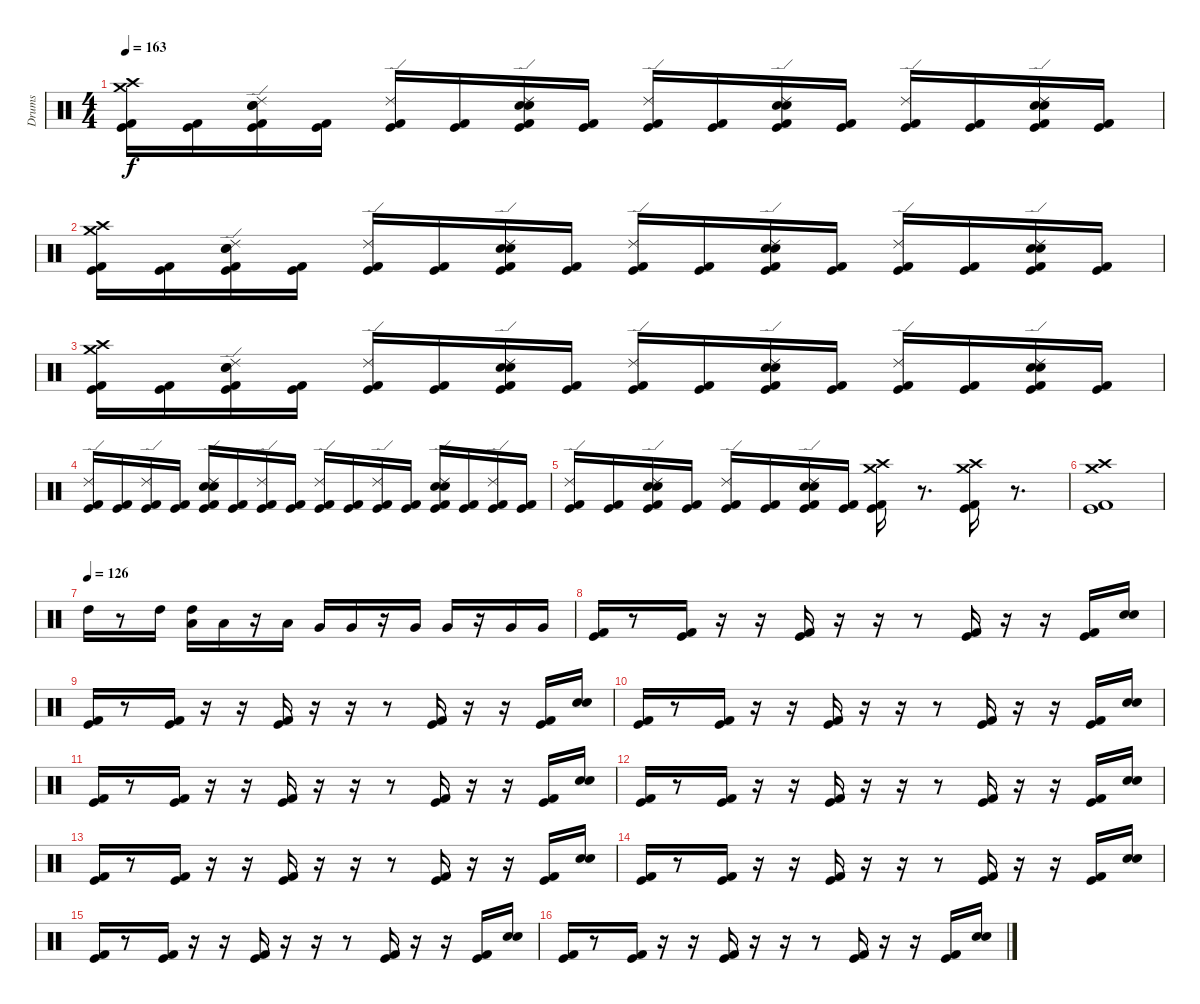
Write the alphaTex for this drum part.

\track ("Drums" "Drums") {instrument percussion}
\staff {score}
\articulation defaults
\ts (4 4)
\tempo 163
\clef neutral
\ks c
("Crash high (hit)" "Crash medium (hit)" "Kick (hit) 2" "Kick (hit)").16{dy f} ("Kick (hit) 2" "Kick (hit)").16 ("Ride (edge) 2" "Electric Snare (hit)" "Snare (hit) 2" "Kick (hit) 2" "Kick (hit)").16 ("Kick (hit) 2" "Kick (hit)").16 ("Ride (edge) 2" "Kick (hit) 2" "Kick (hit)").16 ("Kick (hit) 2" "Kick (hit)").16 ("Ride (edge) 2" "Electric Snare (hit)" "Snare (hit) 2" "Kick (hit) 2" "Kick (hit)").16 ("Kick (hit) 2" "Kick (hit)").16 ("Ride (edge) 2" "Kick (hit) 2" "Kick (hit)").16 ("Kick (hit) 2" "Kick (hit)").16 ("Ride (edge) 2" "Electric Snare (hit)" "Snare (hit) 2" "Kick (hit) 2" "Kick (hit)").16 ("Kick (hit) 2" "Kick (hit)").16 ("Ride (edge) 2" "Kick (hit) 2" "Kick (hit)").16 ("Kick (hit) 2" "Kick (hit)").16 ("Ride (edge) 2" "Electric Snare (hit)" "Snare (hit) 2" "Kick (hit) 2" "Kick (hit)").16 ("Kick (hit) 2" "Kick (hit)").16 |
("Crash high (hit)" "Crash medium (hit)" "Kick (hit) 2" "Kick (hit)").16 ("Kick (hit) 2" "Kick (hit)").16 ("Ride (edge) 2" "Electric Snare (hit)" "Snare (hit) 2" "Kick (hit) 2" "Kick (hit)").16 ("Kick (hit) 2" "Kick (hit)").16 ("Ride (edge) 2" "Kick (hit) 2" "Kick (hit)").16 ("Kick (hit) 2" "Kick (hit)").16 ("Ride (edge) 2" "Electric Snare (hit)" "Snare (hit) 2" "Kick (hit) 2" "Kick (hit)").16 ("Kick (hit) 2" "Kick (hit)").16 ("Ride (edge) 2" "Kick (hit) 2" "Kick (hit)").16 ("Kick (hit) 2" "Kick (hit)").16 ("Ride (edge) 2" "Electric Snare (hit)" "Snare (hit) 2" "Kick (hit) 2" "Kick (hit)").16 ("Kick (hit) 2" "Kick (hit)").16 ("Ride (edge) 2" "Kick (hit) 2" "Kick (hit)").16 ("Kick (hit) 2" "Kick (hit)").16 ("Ride (edge) 2" "Electric Snare (hit)" "Snare (hit) 2" "Kick (hit) 2" "Kick (hit)").16 ("Kick (hit) 2" "Kick (hit)").16 |
("Crash high (hit)" "Crash medium (hit)" "Kick (hit) 2" "Kick (hit)").16 ("Kick (hit) 2" "Kick (hit)").16 ("Ride (edge) 2" "Electric Snare (hit)" "Snare (hit) 2" "Kick (hit) 2" "Kick (hit)").16 ("Kick (hit) 2" "Kick (hit)").16 ("Ride (edge) 2" "Kick (hit) 2" "Kick (hit)").16 ("Kick (hit) 2" "Kick (hit)").16 ("Ride (edge) 2" "Electric Snare (hit)" "Snare (hit) 2" "Kick (hit) 2" "Kick (hit)").16 ("Kick (hit) 2" "Kick (hit)").16 ("Ride (edge) 2" "Kick (hit) 2" "Kick (hit)").16 ("Kick (hit) 2" "Kick (hit)").16 ("Ride (edge) 2" "Electric Snare (hit)" "Snare (hit) 2" "Kick (hit) 2" "Kick (hit)").16 ("Kick (hit) 2" "Kick (hit)").16 ("Ride (edge) 2" "Kick (hit) 2" "Kick (hit)").16 ("Kick (hit) 2" "Kick (hit)").16 ("Ride (edge) 2" "Electric Snare (hit)" "Snare (hit) 2" "Kick (hit) 2" "Kick (hit)").16 ("Kick (hit) 2" "Kick (hit)").16 |
("Ride (edge) 2" "Kick (hit) 2" "Kick (hit)").16 ("Kick (hit) 2" "Kick (hit)").16 ("Ride (edge) 2" "Kick (hit) 2" "Kick (hit)").16 ("Kick (hit) 2" "Kick (hit)").16 ("Electric Snare (hit)" "Snare (hit) 2" "Ride (edge) 2" "Kick (hit) 2" "Kick (hit)").16 ("Kick (hit) 2" "Kick (hit)").16 ("Ride (edge) 2" "Kick (hit) 2" "Kick (hit)").16 ("Kick (hit) 2" "Kick (hit)").16 ("Ride (edge) 2" "Kick (hit) 2" "Kick (hit)").16 ("Kick (hit) 2" "Kick (hit)").16 ("Ride (edge) 2" "Kick (hit) 2" "Kick (hit)").16 ("Kick (hit) 2" "Kick (hit)").16 ("Electric Snare (hit)" "Snare (hit) 2" "Ride (edge) 2" "Kick (hit) 2" "Kick (hit)").16 ("Kick (hit) 2" "Kick (hit)").16 ("Ride (edge) 2" "Kick (hit) 2" "Kick (hit)").16 ("Kick (hit) 2" "Kick (hit)").16 |
("Ride (edge) 2" "Kick (hit) 2" "Kick (hit)").16 ("Kick (hit) 2" "Kick (hit)").16 ("Ride (edge) 2" "Electric Snare (hit)" "Snare (hit) 2" "Kick (hit) 2" "Kick (hit)").16 ("Kick (hit) 2" "Kick (hit)").16 ("Ride (edge) 2" "Kick (hit) 2" "Kick (hit)").16 ("Kick (hit) 2" "Kick (hit)").16 ("Ride (edge) 2" "Electric Snare (hit)" "Snare (hit) 2" "Kick (hit) 2" "Kick (hit)").16 ("Kick (hit) 2" "Kick (hit)").16 ("Crash medium (hit)" "Crash high (hit)" "Kick (hit) 2" "Kick (hit)").16 r.8{d} ("Crash medium (hit)" "Crash high (hit)" "Kick (hit) 2" "Kick (hit)").16 r.8{d} |
("Crash medium (hit)" "Crash high (hit)" "Kick (hit) 2" "Kick (hit)").1 |
\tempo (126)
"High Tom (hit)".16 r.8 "High Tom (hit)".16 ("Low Tom (hit)" "High Tom (hit)").16 "Low Tom (hit)".16 r.16 "Low Tom (hit)".16 "Very Low Tom (hit)".16 "Very Low Tom (hit)".16 r.16 "Very Low Tom (hit)".16 "Very Low Tom (hit)".16 r.16 "Very Low Tom (hit)".16 "Very Low Tom (hit)".16 |
("Kick (hit) 2" "Kick (hit)").16 r.8 ("Kick (hit) 2" "Kick (hit)").16 r.16 r.16 ("Kick (hit) 2" "Kick (hit)").16 r.16 r.16 r.8 ("Kick (hit) 2" "Kick (hit)").16 r.16 r.16 ("Kick (hit) 2" "Kick (hit)").16 ("Electric Snare (hit)" "Snare (hit) 2").16 |
("Kick (hit) 2" "Kick (hit)").16 r.8 ("Kick (hit) 2" "Kick (hit)").16 r.16 r.16 ("Kick (hit) 2" "Kick (hit)").16 r.16 r.16 r.8 ("Kick (hit) 2" "Kick (hit)").16 r.16 r.16 ("Kick (hit) 2" "Kick (hit)").16 ("Electric Snare (hit)" "Snare (hit) 2").16 |
("Kick (hit) 2" "Kick (hit)").16 r.8 ("Kick (hit) 2" "Kick (hit)").16 r.16 r.16 ("Kick (hit) 2" "Kick (hit)").16 r.16 r.16 r.8 ("Kick (hit) 2" "Kick (hit)").16 r.16 r.16 ("Kick (hit) 2" "Kick (hit)").16 ("Electric Snare (hit)" "Snare (hit) 2").16 |
("Kick (hit) 2" "Kick (hit)").16 r.8 ("Kick (hit) 2" "Kick (hit)").16 r.16 r.16 ("Kick (hit) 2" "Kick (hit)").16 r.16 r.16 r.8 ("Kick (hit) 2" "Kick (hit)").16 r.16 r.16 ("Kick (hit) 2" "Kick (hit)").16 ("Electric Snare (hit)" "Snare (hit) 2").16 |
("Kick (hit) 2" "Kick (hit)").16 r.8 ("Kick (hit) 2" "Kick (hit)").16 r.16 r.16 ("Kick (hit) 2" "Kick (hit)").16 r.16 r.16 r.8 ("Kick (hit) 2" "Kick (hit)").16 r.16 r.16 ("Kick (hit) 2" "Kick (hit)").16 ("Electric Snare (hit)" "Snare (hit) 2").16 |
("Kick (hit) 2" "Kick (hit)").16 r.8 ("Kick (hit) 2" "Kick (hit)").16 r.16 r.16 ("Kick (hit) 2" "Kick (hit)").16 r.16 r.16 r.8 ("Kick (hit) 2" "Kick (hit)").16 r.16 r.16 ("Kick (hit) 2" "Kick (hit)").16 ("Electric Snare (hit)" "Snare (hit) 2").16 |
("Kick (hit) 2" "Kick (hit)").16 r.8 ("Kick (hit) 2" "Kick (hit)").16 r.16 r.16 ("Kick (hit) 2" "Kick (hit)").16 r.16 r.16 r.8 ("Kick (hit) 2" "Kick (hit)").16 r.16 r.16 ("Kick (hit) 2" "Kick (hit)").16 ("Electric Snare (hit)" "Snare (hit) 2").16 |
("Kick (hit) 2" "Kick (hit)").16 r.8 ("Kick (hit) 2" "Kick (hit)").16 r.16 r.16 ("Kick (hit) 2" "Kick (hit)").16 r.16 r.16 r.8 ("Kick (hit) 2" "Kick (hit)").16 r.16 r.16 ("Kick (hit) 2" "Kick (hit)").16 ("Electric Snare (hit)" "Snare (hit) 2").16 |
("Kick (hit) 2" "Kick (hit)").16 r.8 ("Kick (hit) 2" "Kick (hit)").16 r.16 r.16 ("Kick (hit) 2" "Kick (hit)").16 r.16 r.16 r.8 ("Kick (hit) 2" "Kick (hit)").16 r.16 r.16 ("Kick (hit) 2" "Kick (hit)").16 ("Electric Snare (hit)" "Snare (hit) 2").16
